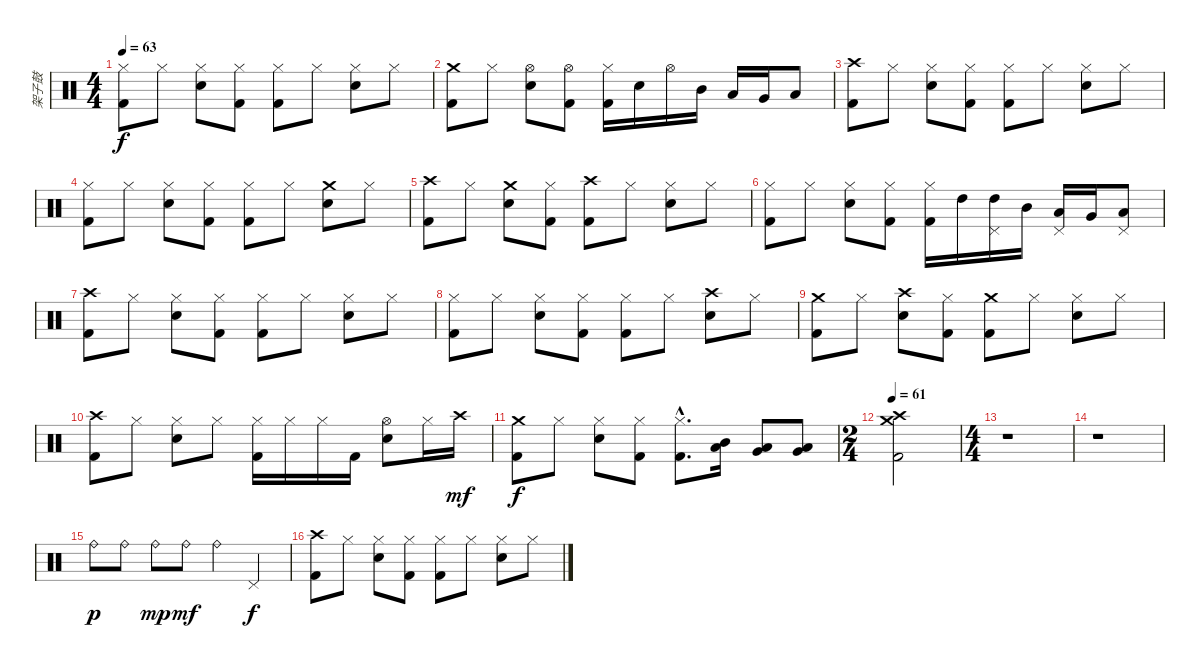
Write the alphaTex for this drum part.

\track ("架子鼓" "架子鼓") {instrument percussion}
\staff {score}
\articulation defaults
\ts (4 4)
\tempo 63
\clef neutral
\ks c
("Hi-Hat (closed)" "Kick (hit) 2").8{dy f} "Hi-Hat (closed)".8 ("Hi-Hat (closed)" "Snare (hit) 2").8 ("Hi-Hat (closed)" "Kick (hit) 2").8 ("Hi-Hat (closed)" "Kick (hit) 2").8 "Hi-Hat (closed)".8 ("Hi-Hat (closed)" "Snare (hit) 2").8 "Hi-Hat (closed)".8 |
("Crash medium (hit)" "Kick (hit) 2").8 "Hi-Hat (closed)".8 ("Hi-Hat (open)" "Snare (hit) 2").8 ("Hi-Hat (open)" "Kick (hit) 2").8 ("Hi-Hat (closed)" "Kick (hit) 2").16 "Snare (hit) 2".16 "Hi-Hat (open)".16 "Mid Tom (hit)".16 "Low Tom (hit)".16 "Very Low Tom (hit)".16 "Low Floor Tom (hit)".8 |
("Crash high (hit)" "Kick (hit) 2").8 "Hi-Hat (closed)".8 ("Hi-Hat (closed)" "Snare (hit) 2").8 ("Hi-Hat (closed)" "Kick (hit) 2").8 ("Hi-Hat (closed)" "Kick (hit) 2").8 "Hi-Hat (closed)".8 ("Hi-Hat (closed)" "Snare (hit) 2").8 "Hi-Hat (closed)".8 |
("Hi-Hat (closed)" "Kick (hit) 2").8 "Hi-Hat (closed)".8 ("Hi-Hat (closed)" "Snare (hit) 2").8 ("Hi-Hat (closed)" "Kick (hit) 2").8 ("Hi-Hat (closed)" "Kick (hit) 2").8 "Hi-Hat (closed)".8 ("Crash medium (hit)" "Snare (hit) 2").8 "Hi-Hat (closed)".8 |
("Crash high (hit)" "Kick (hit) 2").8 "Hi-Hat (closed)".8 ("Crash medium (hit)" "Snare (hit) 2").8 ("Hi-Hat (closed)" "Kick (hit) 2").8 ("Crash high (hit)" "Kick (hit) 2").8 "Hi-Hat (closed)".8 ("Hi-Hat (closed)" "Snare (hit) 2").8 "Hi-Hat (closed)".8 |
("Hi-Hat (closed)" "Kick (hit) 2").8 "Hi-Hat (closed)".8 ("Hi-Hat (closed)" "Snare (hit) 2").8 ("Hi-Hat (closed)" "Kick (hit) 2").8 ("Hi-Hat (closed)" "Kick (hit) 2").16 "High Tom (hit)".16 ("Pedal Hi-Hat (hit)" "High Tom (hit)").16 "Mid Tom (hit)".16 ("Pedal Hi-Hat (hit)" "Low Tom (hit)").16 "Very Low Tom (hit)".16 ("Pedal Hi-Hat (hit)" "Low Floor Tom (hit)").8 |
("Crash high (hit)" "Kick (hit) 2").8 "Hi-Hat (closed)".8 ("Hi-Hat (closed)" "Snare (hit) 2").8 ("Hi-Hat (closed)" "Kick (hit) 2").8 ("Hi-Hat (closed)" "Kick (hit) 2").8 "Hi-Hat (closed)".8 ("Hi-Hat (closed)" "Snare (hit) 2").8 "Hi-Hat (closed)".8 |
("Hi-Hat (closed)" "Kick (hit) 2").8 "Hi-Hat (closed)".8 ("Hi-Hat (closed)" "Snare (hit) 2").8 ("Hi-Hat (closed)" "Kick (hit) 2").8 ("Hi-Hat (closed)" "Kick (hit) 2").8 "Hi-Hat (closed)".8 ("Crash high (hit)" "Snare (hit) 2").8 "Hi-Hat (closed)".8 |
("Crash medium (hit)" "Kick (hit) 2").8 "Hi-Hat (closed)".8 ("Crash high (hit)" "Snare (hit) 2").8 ("Hi-Hat (closed)" "Kick (hit) 2").8 ("Crash medium (hit)" "Kick (hit) 2").8 "Hi-Hat (closed)".8 ("Hi-Hat (closed)" "Snare (hit) 2").8 "Hi-Hat (closed)".8 |
("Crash high (hit)" "Kick (hit) 2").8 "Hi-Hat (closed)".8 ("Hi-Hat (closed)" "Snare (hit) 2").8 "Hi-Hat (closed)".8 ("Hi-Hat (closed)" "Kick (hit) 2").16 "Hi-Hat (closed)".16 "Hi-Hat (closed)".16 "Kick (hit) 2".16 ("Hi-Hat (open)" "Snare (hit) 2").8 "Hi-Hat (closed)".16 "Crash high (hit)".16{dy mf} |
("Crash medium (hit)" "Kick (hit) 2").8{dy f} "Hi-Hat (closed)".8 ("Hi-Hat (closed)" "Snare (hit) 2").8 ("Hi-Hat (closed)" "Kick (hit) 2").8 ("Hi-Hat (closed)"{hac} "Kick (hit) 2"{hac}).8{d} ("Mid Tom (hit)" "Low Tom (hit)").16 ("Low Tom (hit)" "Very Low Tom (hit)").8 ("Very Low Tom (hit)" "Low Floor Tom (hit)").8 |
\ts (2 4)
\tempo 61
("Crash high (hit)" "Crash medium (hit)" "Kick (hit) 2").2 |
\ts (4 4)
r.1 |
r.1 |
"Ride (bell)".8{dy p} "Ride (bell)".8 "Ride (bell)".8{dy mp} "Ride (bell)".8{dy mf} "Ride (bell)".4 "Pedal Hi-Hat (hit)".4{dy f} |
("Crash high (hit)" "Kick (hit) 2").8 "Hi-Hat (closed)".8 ("Hi-Hat (closed)" "Snare (hit) 2").8 ("Hi-Hat (closed)" "Kick (hit) 2").8 ("Hi-Hat (closed)" "Kick (hit) 2").8 "Hi-Hat (closed)".8 ("Hi-Hat (closed)" "Snare (hit) 2").8 "Hi-Hat (closed)".8
